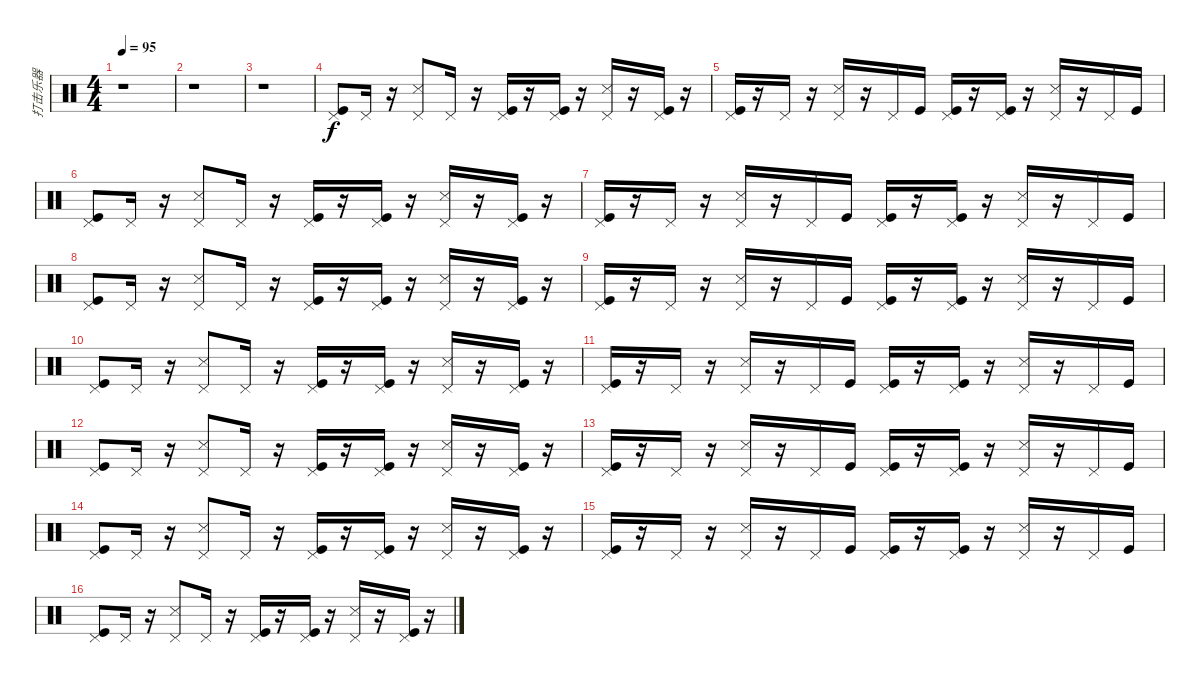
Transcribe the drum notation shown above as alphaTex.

\track ("打击乐器" "打击乐器") {instrument percussion}
\staff {score}
\articulation defaults
\ts (4 4)
\tempo 95
\clef neutral
\ks c
r.1{dy f} |
r.1 |
r.1 |
("Pedal Hi-Hat (hit)" "Kick (hit)").8 "Pedal Hi-Hat (hit)".16 r.16 ("Pedal Hi-Hat (hit)" "Snare (side stick) 3").8 "Pedal Hi-Hat (hit)".16 r.16 ("Kick (hit)" "Pedal Hi-Hat (hit)").16 r.16 ("Kick (hit)" "Pedal Hi-Hat (hit)").16 r.16 ("Snare (side stick) 3" "Pedal Hi-Hat (hit)").16 r.16 ("Kick (hit)" "Pedal Hi-Hat (hit)").16 r.16 |
("Pedal Hi-Hat (hit)" "Kick (hit)").16 r.16 "Pedal Hi-Hat (hit)".16 r.16 ("Pedal Hi-Hat (hit)" "Snare (side stick) 3").16 r.16 "Pedal Hi-Hat (hit)".16 "Kick (hit)".16 ("Pedal Hi-Hat (hit)" "Kick (hit)").16 r.16 ("Pedal Hi-Hat (hit)" "Kick (hit)").16 r.16 ("Pedal Hi-Hat (hit)" "Snare (side stick) 3").16 r.16 "Pedal Hi-Hat (hit)".16 "Kick (hit)".16 |
("Pedal Hi-Hat (hit)" "Kick (hit)").8 "Pedal Hi-Hat (hit)".16 r.16 ("Pedal Hi-Hat (hit)" "Snare (side stick) 3").8 "Pedal Hi-Hat (hit)".16 r.16 ("Kick (hit)" "Pedal Hi-Hat (hit)").16 r.16 ("Kick (hit)" "Pedal Hi-Hat (hit)").16 r.16 ("Snare (side stick) 3" "Pedal Hi-Hat (hit)").16 r.16 ("Kick (hit)" "Pedal Hi-Hat (hit)").16 r.16 |
("Pedal Hi-Hat (hit)" "Kick (hit)").16 r.16 "Pedal Hi-Hat (hit)".16 r.16 ("Pedal Hi-Hat (hit)" "Snare (side stick) 3").16 r.16 "Pedal Hi-Hat (hit)".16 "Kick (hit)".16 ("Pedal Hi-Hat (hit)" "Kick (hit)").16 r.16 ("Pedal Hi-Hat (hit)" "Kick (hit)").16 r.16 ("Pedal Hi-Hat (hit)" "Snare (side stick) 3").16 r.16 "Pedal Hi-Hat (hit)".16 "Kick (hit)".16 |
("Pedal Hi-Hat (hit)" "Kick (hit)").8 "Pedal Hi-Hat (hit)".16 r.16 ("Pedal Hi-Hat (hit)" "Snare (side stick) 3").8 "Pedal Hi-Hat (hit)".16 r.16 ("Kick (hit)" "Pedal Hi-Hat (hit)").16 r.16 ("Kick (hit)" "Pedal Hi-Hat (hit)").16 r.16 ("Snare (side stick) 3" "Pedal Hi-Hat (hit)").16 r.16 ("Kick (hit)" "Pedal Hi-Hat (hit)").16 r.16 |
("Pedal Hi-Hat (hit)" "Kick (hit)").16 r.16 "Pedal Hi-Hat (hit)".16 r.16 ("Pedal Hi-Hat (hit)" "Snare (side stick) 3").16 r.16 "Pedal Hi-Hat (hit)".16 "Kick (hit)".16 ("Pedal Hi-Hat (hit)" "Kick (hit)").16 r.16 ("Pedal Hi-Hat (hit)" "Kick (hit)").16 r.16 ("Pedal Hi-Hat (hit)" "Snare (side stick) 3").16 r.16 "Pedal Hi-Hat (hit)".16 "Kick (hit)".16 |
("Pedal Hi-Hat (hit)" "Kick (hit)").8 "Pedal Hi-Hat (hit)".16 r.16 ("Pedal Hi-Hat (hit)" "Snare (side stick) 3").8 "Pedal Hi-Hat (hit)".16 r.16 ("Kick (hit)" "Pedal Hi-Hat (hit)").16 r.16 ("Kick (hit)" "Pedal Hi-Hat (hit)").16 r.16 ("Snare (side stick) 3" "Pedal Hi-Hat (hit)").16 r.16 ("Kick (hit)" "Pedal Hi-Hat (hit)").16 r.16 |
("Pedal Hi-Hat (hit)" "Kick (hit)").16 r.16 "Pedal Hi-Hat (hit)".16 r.16 ("Pedal Hi-Hat (hit)" "Snare (side stick) 3").16 r.16 "Pedal Hi-Hat (hit)".16 "Kick (hit)".16 ("Pedal Hi-Hat (hit)" "Kick (hit)").16 r.16 ("Pedal Hi-Hat (hit)" "Kick (hit)").16 r.16 ("Pedal Hi-Hat (hit)" "Snare (side stick) 3").16 r.16 "Pedal Hi-Hat (hit)".16 "Kick (hit)".16 |
("Pedal Hi-Hat (hit)" "Kick (hit)").8 "Pedal Hi-Hat (hit)".16 r.16 ("Pedal Hi-Hat (hit)" "Snare (side stick) 3").8 "Pedal Hi-Hat (hit)".16 r.16 ("Kick (hit)" "Pedal Hi-Hat (hit)").16 r.16 ("Kick (hit)" "Pedal Hi-Hat (hit)").16 r.16 ("Snare (side stick) 3" "Pedal Hi-Hat (hit)").16 r.16 ("Kick (hit)" "Pedal Hi-Hat (hit)").16 r.16 |
("Pedal Hi-Hat (hit)" "Kick (hit)").16 r.16 "Pedal Hi-Hat (hit)".16 r.16 ("Pedal Hi-Hat (hit)" "Snare (side stick) 3").16 r.16 "Pedal Hi-Hat (hit)".16 "Kick (hit)".16 ("Pedal Hi-Hat (hit)" "Kick (hit)").16 r.16 ("Pedal Hi-Hat (hit)" "Kick (hit)").16 r.16 ("Pedal Hi-Hat (hit)" "Snare (side stick) 3").16 r.16 "Pedal Hi-Hat (hit)".16 "Kick (hit)".16 |
("Pedal Hi-Hat (hit)" "Kick (hit)").8 "Pedal Hi-Hat (hit)".16 r.16 ("Pedal Hi-Hat (hit)" "Snare (side stick) 3").8 "Pedal Hi-Hat (hit)".16 r.16 ("Kick (hit)" "Pedal Hi-Hat (hit)").16 r.16 ("Kick (hit)" "Pedal Hi-Hat (hit)").16 r.16 ("Snare (side stick) 3" "Pedal Hi-Hat (hit)").16 r.16 ("Kick (hit)" "Pedal Hi-Hat (hit)").16 r.16 |
("Pedal Hi-Hat (hit)" "Kick (hit)").16 r.16 "Pedal Hi-Hat (hit)".16 r.16 ("Pedal Hi-Hat (hit)" "Snare (side stick) 3").16 r.16 "Pedal Hi-Hat (hit)".16 "Kick (hit)".16 ("Pedal Hi-Hat (hit)" "Kick (hit)").16 r.16 ("Pedal Hi-Hat (hit)" "Kick (hit)").16 r.16 ("Pedal Hi-Hat (hit)" "Snare (side stick) 3").16 r.16 "Pedal Hi-Hat (hit)".16 "Kick (hit)".16 |
("Pedal Hi-Hat (hit)" "Kick (hit)").8 "Pedal Hi-Hat (hit)".16 r.16 ("Pedal Hi-Hat (hit)" "Snare (side stick) 3").8 "Pedal Hi-Hat (hit)".16 r.16 ("Kick (hit)" "Pedal Hi-Hat (hit)").16 r.16 ("Kick (hit)" "Pedal Hi-Hat (hit)").16 r.16 ("Snare (side stick) 3" "Pedal Hi-Hat (hit)").16 r.16 ("Kick (hit)" "Pedal Hi-Hat (hit)").16 r.16
